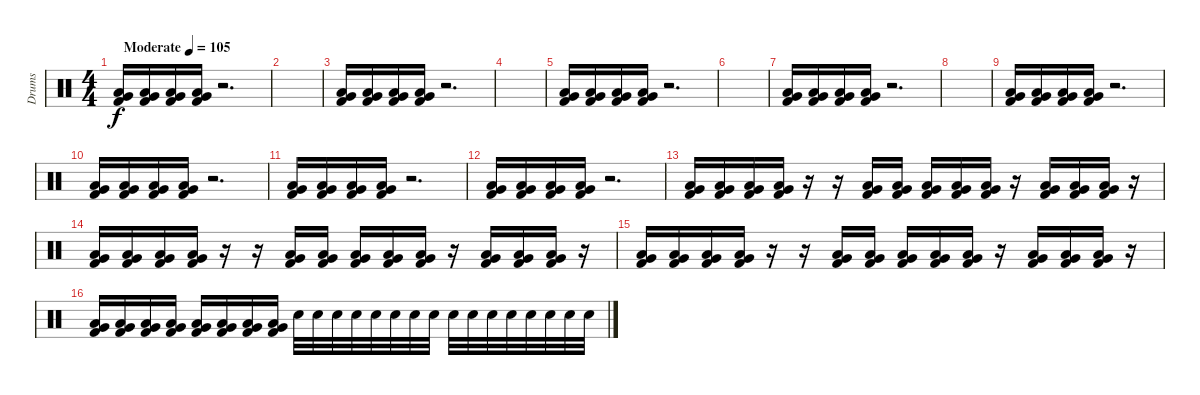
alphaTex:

\track ("Drums" "Drums") {instrument percussion}
\staff {score}
\articulation defaults
\ts (4 4)
\tempo (105 "Moderate")
\clef neutral
\ks c
("Low Tom (hit)" "Very Low Tom (hit)" "Kick (hit) 2").16{dy f} ("Low Tom (hit)" "Very Low Tom (hit)" "Kick (hit) 2").16 ("Low Tom (hit)" "Very Low Tom (hit)" "Kick (hit) 2").16 ("Low Tom (hit)" "Very Low Tom (hit)" "Kick (hit) 2").16 r.2{d} |
|
("Low Tom (hit)" "Very Low Tom (hit)" "Kick (hit) 2").16 ("Low Tom (hit)" "Very Low Tom (hit)" "Kick (hit) 2").16 ("Low Tom (hit)" "Very Low Tom (hit)" "Kick (hit) 2").16 ("Low Tom (hit)" "Very Low Tom (hit)" "Kick (hit) 2").16 r.2{d} |
|
("Low Tom (hit)" "Very Low Tom (hit)" "Kick (hit) 2").16 ("Low Tom (hit)" "Very Low Tom (hit)" "Kick (hit) 2").16 ("Low Tom (hit)" "Very Low Tom (hit)" "Kick (hit) 2").16 ("Low Tom (hit)" "Very Low Tom (hit)" "Kick (hit) 2").16 r.2{d} |
|
("Low Tom (hit)" "Very Low Tom (hit)" "Kick (hit) 2").16 ("Low Tom (hit)" "Very Low Tom (hit)" "Kick (hit) 2").16 ("Low Tom (hit)" "Very Low Tom (hit)" "Kick (hit) 2").16 ("Low Tom (hit)" "Very Low Tom (hit)" "Kick (hit) 2").16 r.2{d} |
|
("Low Tom (hit)" "Very Low Tom (hit)" "Kick (hit) 2").16 ("Low Tom (hit)" "Very Low Tom (hit)" "Kick (hit) 2").16 ("Low Tom (hit)" "Very Low Tom (hit)" "Kick (hit) 2").16 ("Low Tom (hit)" "Very Low Tom (hit)" "Kick (hit) 2").16 r.2{d} |
("Low Tom (hit)" "Very Low Tom (hit)" "Kick (hit) 2").16 ("Low Tom (hit)" "Very Low Tom (hit)" "Kick (hit) 2").16 ("Low Tom (hit)" "Very Low Tom (hit)" "Kick (hit) 2").16 ("Low Tom (hit)" "Very Low Tom (hit)" "Kick (hit) 2").16 r.2{d} |
("Low Tom (hit)" "Very Low Tom (hit)" "Kick (hit) 2").16 ("Low Tom (hit)" "Very Low Tom (hit)" "Kick (hit) 2").16 ("Low Tom (hit)" "Very Low Tom (hit)" "Kick (hit) 2").16 ("Low Tom (hit)" "Very Low Tom (hit)" "Kick (hit) 2").16 r.2{d} |
("Low Tom (hit)" "Very Low Tom (hit)" "Kick (hit) 2").16 ("Low Tom (hit)" "Very Low Tom (hit)" "Kick (hit) 2").16 ("Low Tom (hit)" "Very Low Tom (hit)" "Kick (hit) 2").16 ("Low Tom (hit)" "Very Low Tom (hit)" "Kick (hit) 2").16 r.2{d} |
("Low Tom (hit)" "Very Low Tom (hit)" "Kick (hit) 2").16 ("Low Tom (hit)" "Very Low Tom (hit)" "Kick (hit) 2").16 ("Low Tom (hit)" "Very Low Tom (hit)" "Kick (hit) 2").16 ("Low Tom (hit)" "Very Low Tom (hit)" "Kick (hit) 2").16 r.16 r.16 ("Low Tom (hit)" "Very Low Tom (hit)" "Kick (hit) 2").16 ("Low Tom (hit)" "Very Low Tom (hit)" "Kick (hit) 2").16 ("Low Tom (hit)" "Very Low Tom (hit)" "Kick (hit) 2").16 ("Low Tom (hit)" "Very Low Tom (hit)" "Kick (hit) 2").16 ("Low Tom (hit)" "Very Low Tom (hit)" "Kick (hit) 2").16 r.16 ("Low Tom (hit)" "Very Low Tom (hit)" "Kick (hit) 2").16 ("Low Tom (hit)" "Very Low Tom (hit)" "Kick (hit) 2").16 ("Low Tom (hit)" "Very Low Tom (hit)" "Kick (hit) 2").16 r.16 |
("Low Tom (hit)" "Very Low Tom (hit)" "Kick (hit) 2").16 ("Low Tom (hit)" "Very Low Tom (hit)" "Kick (hit) 2").16 ("Low Tom (hit)" "Very Low Tom (hit)" "Kick (hit) 2").16 ("Low Tom (hit)" "Very Low Tom (hit)" "Kick (hit) 2").16 r.16 r.16 ("Low Tom (hit)" "Very Low Tom (hit)" "Kick (hit) 2").16 ("Low Tom (hit)" "Very Low Tom (hit)" "Kick (hit) 2").16 ("Low Tom (hit)" "Very Low Tom (hit)" "Kick (hit) 2").16 ("Low Tom (hit)" "Very Low Tom (hit)" "Kick (hit) 2").16 ("Low Tom (hit)" "Very Low Tom (hit)" "Kick (hit) 2").16 r.16 ("Low Tom (hit)" "Very Low Tom (hit)" "Kick (hit) 2").16 ("Low Tom (hit)" "Very Low Tom (hit)" "Kick (hit) 2").16 ("Low Tom (hit)" "Very Low Tom (hit)" "Kick (hit) 2").16 r.16 |
("Low Tom (hit)" "Very Low Tom (hit)" "Kick (hit) 2").16 ("Low Tom (hit)" "Very Low Tom (hit)" "Kick (hit) 2").16 ("Low Tom (hit)" "Very Low Tom (hit)" "Kick (hit) 2").16 ("Low Tom (hit)" "Very Low Tom (hit)" "Kick (hit) 2").16 r.16 r.16 ("Low Tom (hit)" "Very Low Tom (hit)" "Kick (hit) 2").16 ("Low Tom (hit)" "Very Low Tom (hit)" "Kick (hit) 2").16 ("Low Tom (hit)" "Very Low Tom (hit)" "Kick (hit) 2").16 ("Low Tom (hit)" "Very Low Tom (hit)" "Kick (hit) 2").16 ("Low Tom (hit)" "Very Low Tom (hit)" "Kick (hit) 2").16 r.16 ("Low Tom (hit)" "Very Low Tom (hit)" "Kick (hit) 2").16 ("Low Tom (hit)" "Very Low Tom (hit)" "Kick (hit) 2").16 ("Low Tom (hit)" "Very Low Tom (hit)" "Kick (hit) 2").16 r.16 |
("Low Tom (hit)" "Very Low Tom (hit)" "Kick (hit) 2").16 ("Low Tom (hit)" "Very Low Tom (hit)" "Kick (hit) 2").16 ("Low Tom (hit)" "Very Low Tom (hit)" "Kick (hit) 2").16 ("Low Tom (hit)" "Very Low Tom (hit)" "Kick (hit) 2").16 ("Low Tom (hit)" "Very Low Tom (hit)" "Kick (hit) 2").16 ("Low Tom (hit)" "Very Low Tom (hit)" "Kick (hit) 2").16 ("Low Tom (hit)" "Very Low Tom (hit)" "Kick (hit) 2").16 ("Low Tom (hit)" "Very Low Tom (hit)" "Kick (hit) 2").16 "Electric Snare (hit)".32 "Electric Snare (hit)".32 "Electric Snare (hit)".32 "Electric Snare (hit)".32 "Electric Snare (hit)".32 "Electric Snare (hit)".32 "Electric Snare (hit)".32 "Electric Snare (hit)".32 "Electric Snare (hit)".32 "Electric Snare (hit)".32 "Electric Snare (hit)".32 "Electric Snare (hit)".32 "Electric Snare (hit)".32 "Electric Snare (hit)".32 "Electric Snare (hit)".32 "Electric Snare (hit)".32
